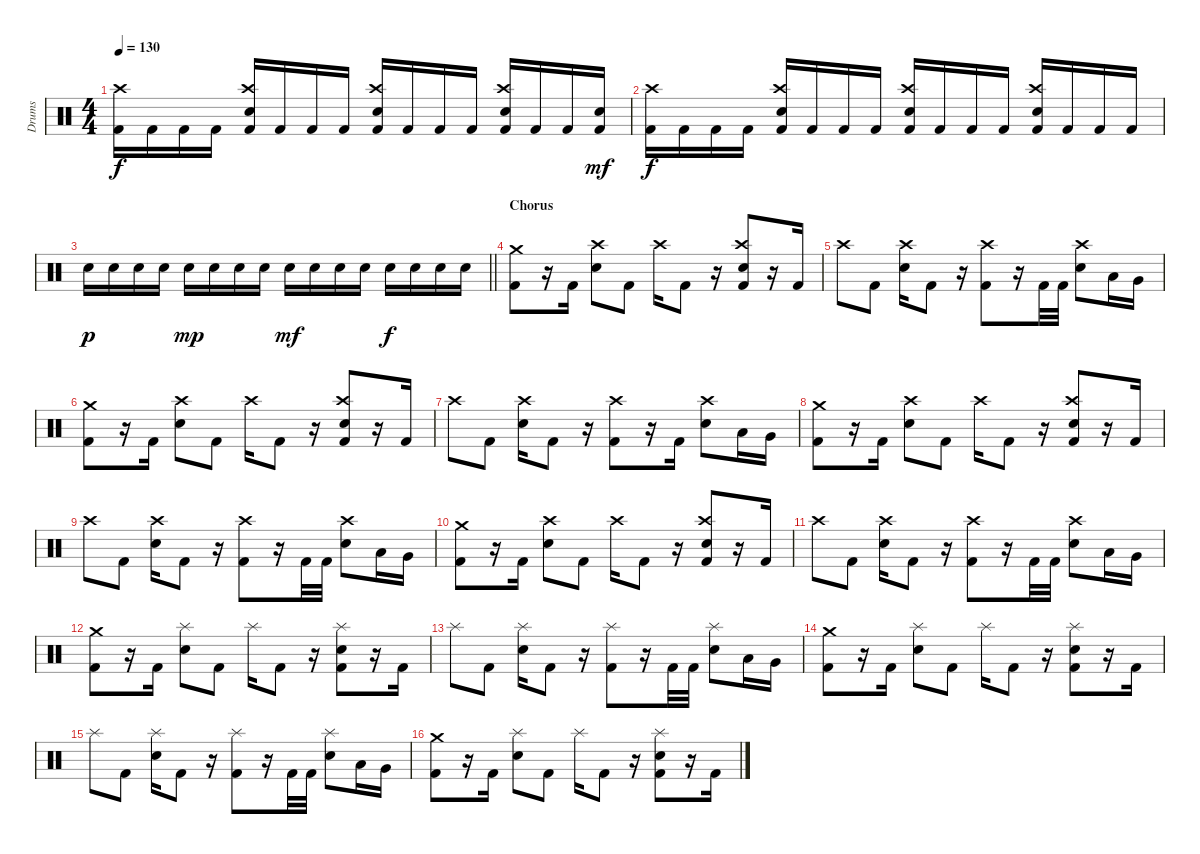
\track ("Drums" "Drums") {instrument percussion}
\staff {score}
\articulation defaults
\ts (4 4)
\tempo 130
\clef neutral
\ks c
("Kick (hit) 2" "Crash high (hit)").16{dy f} "Kick (hit) 2".16 "Kick (hit) 2".16 "Kick (hit) 2".16 ("Kick (hit) 2" "Crash high (hit)" "Electric Snare (hit)").16 "Kick (hit) 2".16 "Kick (hit) 2".16 "Kick (hit) 2".16 ("Kick (hit) 2" "Crash high (hit)" "Electric Snare (hit)").16 "Kick (hit) 2".16 "Kick (hit) 2".16 "Kick (hit) 2".16 ("Kick (hit) 2" "Crash high (hit)" "Electric Snare (hit)").16 "Kick (hit) 2".16 "Kick (hit) 2".16 ("Kick (hit) 2" "Electric Snare (hit)").16{dy mf} |
("Kick (hit) 2" "Crash high (hit)").16{dy f} "Kick (hit) 2".16 "Kick (hit) 2".16 "Kick (hit) 2".16 ("Kick (hit) 2" "Crash high (hit)" "Electric Snare (hit)").16 "Kick (hit) 2".16 "Kick (hit) 2".16 "Kick (hit) 2".16 ("Kick (hit) 2" "Crash high (hit)" "Electric Snare (hit)").16 "Kick (hit) 2".16 "Kick (hit) 2".16 "Kick (hit) 2".16 ("Kick (hit) 2" "Crash high (hit)" "Electric Snare (hit)").16 "Kick (hit) 2".16 "Kick (hit) 2".16 "Kick (hit) 2".16 |
\barLineRight lightlight "Electric Snare (hit)".16{dy p} "Electric Snare (hit)".16 "Electric Snare (hit)".16 "Electric Snare (hit)".16 "Electric Snare (hit)".16{dy mp} "Electric Snare (hit)".16 "Electric Snare (hit)".16 "Electric Snare (hit)".16 "Electric Snare (hit)".16{dy mf} "Electric Snare (hit)".16 "Electric Snare (hit)".16 "Electric Snare (hit)".16 "Electric Snare (hit)".16{dy f} "Electric Snare (hit)".16 "Electric Snare (hit)".16 "Electric Snare (hit)".16
|
\section ("" "Chorus")
("Kick (hit) 2" "Crash medium (hit)").8 r.16 "Kick (hit) 2".16 ("Crash high (hit)" "Electric Snare (hit)").8 "Kick (hit) 2".8 "Crash high (hit)".16 "Kick (hit) 2".8 r.16 ("Kick (hit) 2" "Crash high (hit)" "Electric Snare (hit)").8 r.16 "Kick (hit) 2".16 |
"Crash high (hit)".8 "Kick (hit) 2".8 ("Crash high (hit)" "Electric Snare (hit)").16 "Kick (hit) 2".8 r.16 ("Kick (hit) 2" "Crash high (hit)").8 r.16 "Kick (hit) 2".32 "Kick (hit) 2".32 ("Crash high (hit)" "Electric Snare (hit)").8 "Low Tom (hit)".16 "Very Low Tom (hit)".16 |
("Kick (hit) 2" "Crash medium (hit)").8 r.16 "Kick (hit) 2".16 ("Crash high (hit)" "Electric Snare (hit)").8 "Kick (hit) 2".8 "Crash high (hit)".16 "Kick (hit) 2".8 r.16 ("Kick (hit) 2" "Crash high (hit)" "Electric Snare (hit)").8 r.16 "Kick (hit) 2".16 |
"Crash high (hit)".8 "Kick (hit) 2".8 ("Crash high (hit)" "Electric Snare (hit)").16 "Kick (hit) 2".8 r.16 ("Kick (hit) 2" "Crash high (hit)").8 r.16 "Kick (hit) 2".16 ("Crash high (hit)" "Electric Snare (hit)").8 "Low Tom (hit)".16 "Very Low Tom (hit)".16 |
("Kick (hit) 2" "Crash medium (hit)").8 r.16 "Kick (hit) 2".16 ("Crash high (hit)" "Electric Snare (hit)").8 "Kick (hit) 2".8 "Crash high (hit)".16 "Kick (hit) 2".8 r.16 ("Kick (hit) 2" "Crash high (hit)" "Electric Snare (hit)").8 r.16 "Kick (hit) 2".16 |
"Crash high (hit)".8 "Kick (hit) 2".8 ("Crash high (hit)" "Electric Snare (hit)").16 "Kick (hit) 2".8 r.16 ("Kick (hit) 2" "Crash high (hit)").8 r.16 "Kick (hit) 2".32 "Kick (hit) 2".32 ("Crash high (hit)" "Electric Snare (hit)").8 "Low Tom (hit)".16 "Very Low Tom (hit)".16 |
("Kick (hit) 2" "Crash medium (hit)").8 r.16 "Kick (hit) 2".16 ("Crash high (hit)" "Electric Snare (hit)").8 "Kick (hit) 2".8 "Crash high (hit)".16 "Kick (hit) 2".8 r.16 ("Kick (hit) 2" "Crash high (hit)" "Electric Snare (hit)").8 r.16 "Kick (hit) 2".16 |
"Crash high (hit)".8 "Kick (hit) 2".8 ("Crash high (hit)" "Electric Snare (hit)").16 "Kick (hit) 2".8 r.16 ("Kick (hit) 2" "Crash high (hit)").8 r.16 "Kick (hit) 2".32 "Kick (hit) 2".32 ("Crash high (hit)" "Electric Snare (hit)").8 "Low Tom (hit)".16 "Very Low Tom (hit)".16 |
("Kick (hit) 2" "Crash medium (hit)").8 r.16 "Kick (hit) 2".16 ("Splash (hit)" "Electric Snare (hit)").8 "Kick (hit) 2".8 "Splash (hit)".16 "Kick (hit) 2".8 r.16 ("Kick (hit) 2" "Splash (hit)" "Electric Snare (hit)").8 r.16 "Kick (hit) 2".16 |
"Splash (hit)".8 "Kick (hit) 2".8 ("Splash (hit)" "Electric Snare (hit)").16 "Kick (hit) 2".8 r.16 ("Kick (hit) 2" "Splash (hit)").8 r.16 "Kick (hit) 2".32 "Kick (hit) 2".32 ("Splash (hit)" "Electric Snare (hit)").8 "Low Tom (hit)".16 "Very Low Tom (hit)".16 |
("Kick (hit) 2" "Crash medium (hit)").8 r.16 "Kick (hit) 2".16 ("Splash (hit)" "Electric Snare (hit)").8 "Kick (hit) 2".8 "Splash (hit)".16 "Kick (hit) 2".8 r.16 ("Kick (hit) 2" "Splash (hit)" "Electric Snare (hit)").8 r.16 "Kick (hit) 2".16 |
"Splash (hit)".8 "Kick (hit) 2".8 ("Splash (hit)" "Electric Snare (hit)").16 "Kick (hit) 2".8 r.16 ("Kick (hit) 2" "Splash (hit)").8 r.16 "Kick (hit) 2".32 "Kick (hit) 2".32 ("Splash (hit)" "Electric Snare (hit)").8 "Low Tom (hit)".16 "Very Low Tom (hit)".16 |
("Kick (hit) 2" "Crash medium (hit)").8 r.16 "Kick (hit) 2".16 ("Splash (hit)" "Electric Snare (hit)").8 "Kick (hit) 2".8 "Splash (hit)".16 "Kick (hit) 2".8 r.16 ("Kick (hit) 2" "Splash (hit)" "Electric Snare (hit)").8 r.16 "Kick (hit) 2".16
